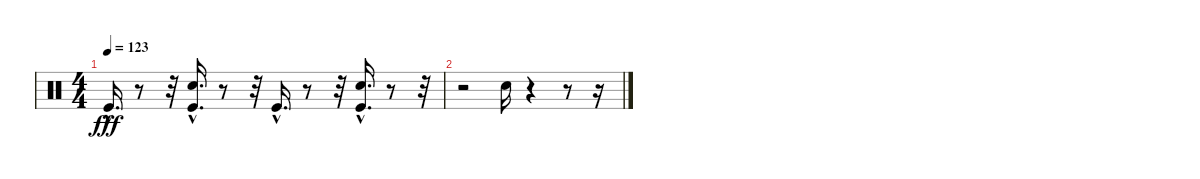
\track "" {instrument percussion}
\staff {score}
\articulation defaults
\ts (4 4)
\tempo 123
\clef neutral
\ks c "Kick (hit)"{hac}.16{d dy fff}
r.8 r.32 ("Kick (hit)"{hac} "Snare (hit) 2").16{d} r.8 r.32 "Kick (hit)"{hac}.16{d} r.8 r.32 ("Snare (hit) 2" "Kick (hit)"{hac}).16{d} r.8 r.32 |
r.2 "Snare (hit) 2".16 r.4 r.8 r.16
